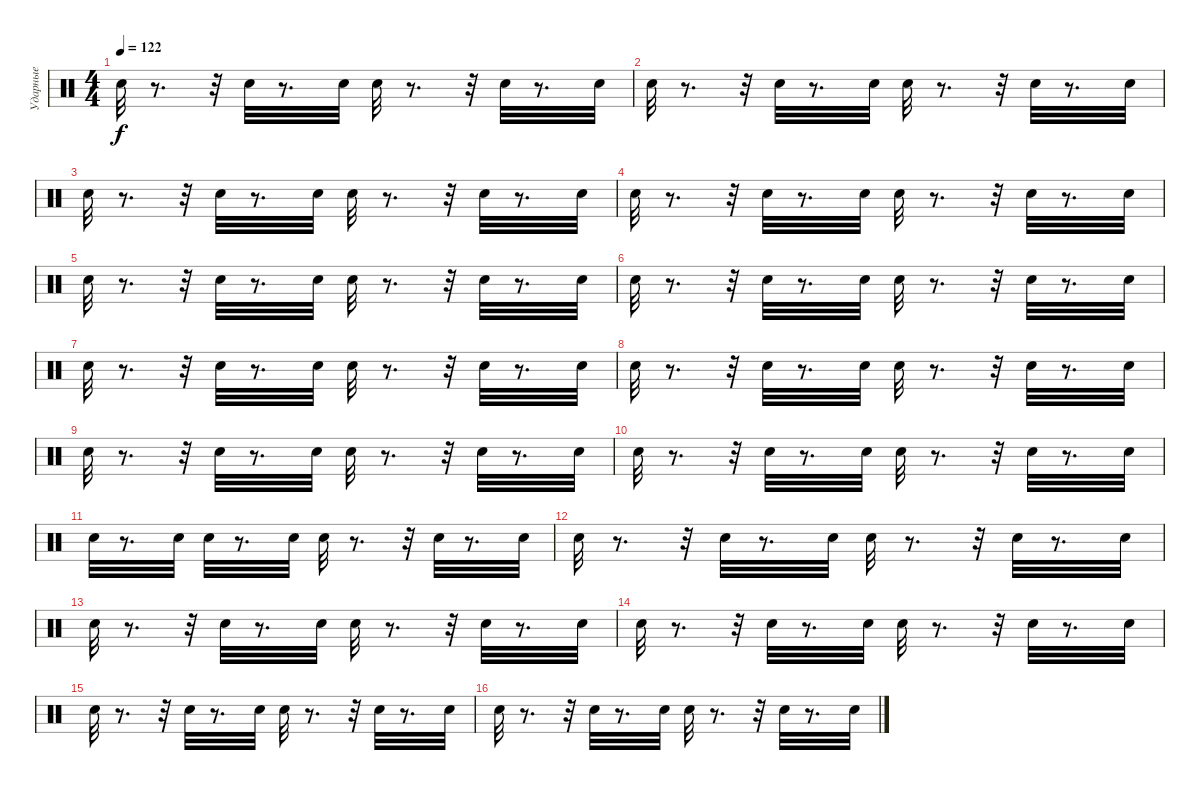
\track ("Ударные" "Ударные") {instrument percussion}
\staff {score}
\articulation defaults
\ts (4 4)
\tempo 122
\clef neutral
\ks c "Snare (hit) 2".32{dy f}
r.8{d} r.32 "Snare (hit) 2".32 r.8{d} "Snare (hit) 2".32 "Snare (hit) 2".32 r.8{d} r.32 "Snare (hit) 2".32 r.8{d} "Snare (hit) 2".32 |
"Snare (hit) 2".32 r.8{d} r.32 "Snare (hit) 2".32 r.8{d} "Snare (hit) 2".32 "Snare (hit) 2".32 r.8{d} r.32 "Snare (hit) 2".32 r.8{d} "Snare (hit) 2".32 |
"Snare (hit) 2".32 r.8{d} r.32 "Snare (hit) 2".32 r.8{d} "Snare (hit) 2".32 "Snare (hit) 2".32 r.8{d} r.32 "Snare (hit) 2".32 r.8{d} "Snare (hit) 2".32 |
"Snare (hit) 2".32 r.8{d} r.32 "Snare (hit) 2".32 r.8{d} "Snare (hit) 2".32 "Snare (hit) 2".32 r.8{d} r.32 "Snare (hit) 2".32 r.8{d} "Snare (hit) 2".32 |
"Snare (hit) 2".32 r.8{d} r.32 "Snare (hit) 2".32 r.8{d} "Snare (hit) 2".32 "Snare (hit) 2".32 r.8{d} r.32 "Snare (hit) 2".32 r.8{d} "Snare (hit) 2".32 |
"Snare (hit) 2".32 r.8{d} r.32 "Snare (hit) 2".32 r.8{d} "Snare (hit) 2".32 "Snare (hit) 2".32 r.8{d} r.32 "Snare (hit) 2".32 r.8{d} "Snare (hit) 2".32 |
"Snare (hit) 2".32 r.8{d} r.32 "Snare (hit) 2".32 r.8{d} "Snare (hit) 2".32 "Snare (hit) 2".32 r.8{d} r.32 "Snare (hit) 2".32 r.8{d} "Snare (hit) 2".32 |
"Snare (hit) 2".32 r.8{d} r.32 "Snare (hit) 2".32 r.8{d} "Snare (hit) 2".32 "Snare (hit) 2".32 r.8{d} r.32 "Snare (hit) 2".32 r.8{d} "Snare (hit) 2".32 |
"Snare (hit) 2".32 r.8{d} r.32 "Snare (hit) 2".32 r.8{d} "Snare (hit) 2".32 "Snare (hit) 2".32 r.8{d} r.32 "Snare (hit) 2".32 r.8{d} "Snare (hit) 2".32 |
"Snare (hit) 2".32 r.8{d} r.32 "Snare (hit) 2".32 r.8{d} "Snare (hit) 2".32 "Snare (hit) 2".32 r.8{d} r.32 "Snare (hit) 2".32 r.8{d} "Snare (hit) 2".32 |
"Snare (hit) 2".32 r.8{d} "Snare (hit) 2".32 "Snare (hit) 2".32 r.8{d} "Snare (hit) 2".32 "Snare (hit) 2".32 r.8{d} r.32 "Snare (hit) 2".32 r.8{d} "Snare (hit) 2".32 |
"Snare (hit) 2".32 r.8{d} r.32 "Snare (hit) 2".32 r.8{d} "Snare (hit) 2".32 "Snare (hit) 2".32 r.8{d} r.32 "Snare (hit) 2".32 r.8{d} "Snare (hit) 2".32 |
"Snare (hit) 2".32 r.8{d} r.32 "Snare (hit) 2".32 r.8{d} "Snare (hit) 2".32 "Snare (hit) 2".32 r.8{d} r.32 "Snare (hit) 2".32 r.8{d} "Snare (hit) 2".32 |
"Snare (hit) 2".32 r.8{d} r.32 "Snare (hit) 2".32 r.8{d} "Snare (hit) 2".32 "Snare (hit) 2".32 r.8{d} r.32 "Snare (hit) 2".32 r.8{d} "Snare (hit) 2".32 |
"Snare (hit) 2".32 r.8{d} r.32 "Snare (hit) 2".32 r.8{d} "Snare (hit) 2".32 "Snare (hit) 2".32 r.8{d} r.32 "Snare (hit) 2".32 r.8{d} "Snare (hit) 2".32 |
"Snare (hit) 2".32 r.8{d} r.32 "Snare (hit) 2".32 r.8{d} "Snare (hit) 2".32 "Snare (hit) 2".32 r.8{d} r.32 "Snare (hit) 2".32 r.8{d} "Snare (hit) 2".32
